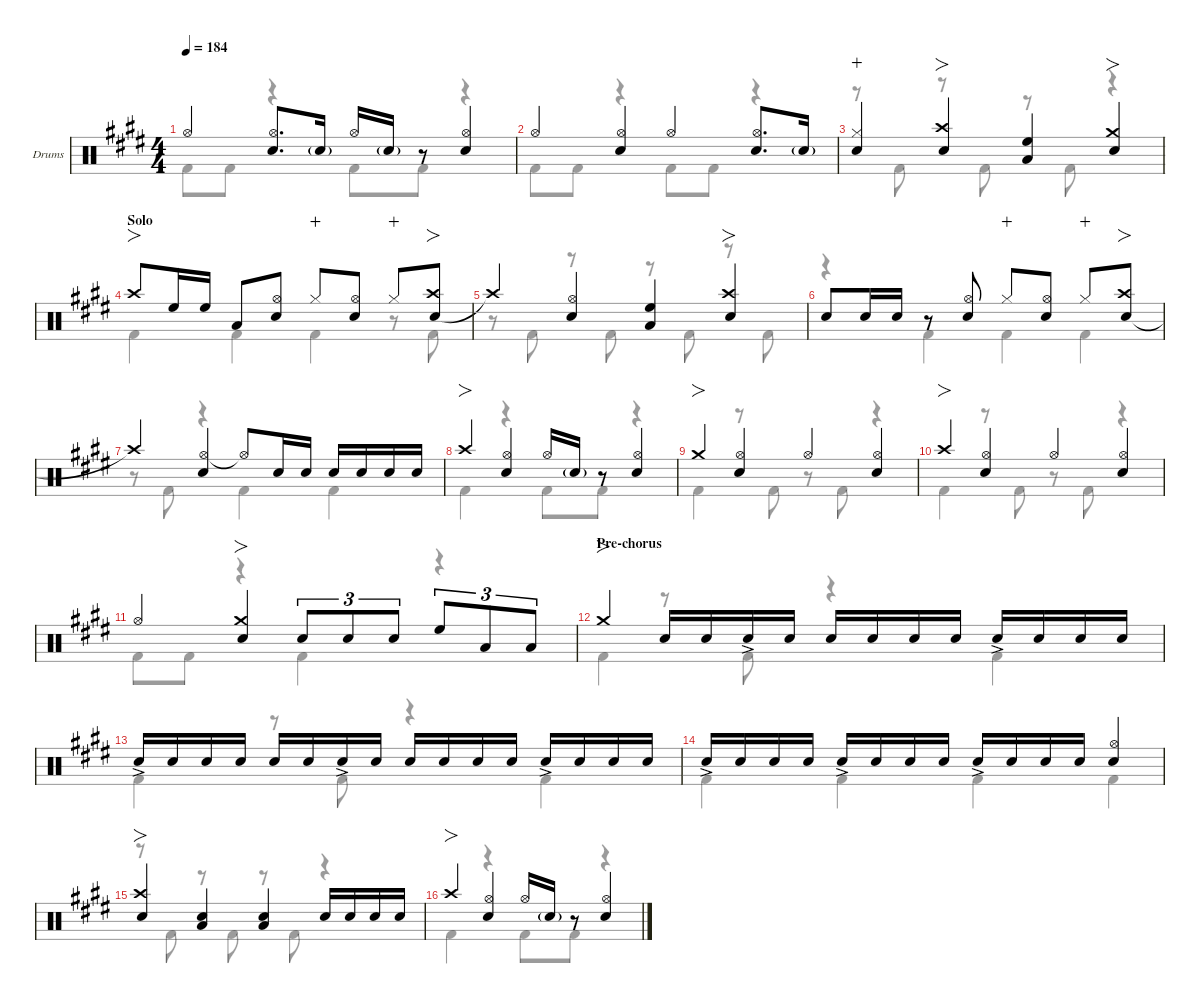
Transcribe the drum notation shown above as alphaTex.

\defaultSystemsLayout 4
\hideDynamics
\bracketExtendMode nobrackets
\firstSystemTrackNameOrientation horizontal
\track ("Drums" "Drums") {defaultSystemsLayout 4 instrument percussion}
\staff {score}
\articulation defaults
\voice
\ts (4 4)
\tempo 184
\clef neutral
\ks e "Hi-Hat (open)"{acc forcenatural}.4{dy f}
("Hi-Hat (open)"{acc forcenatural} "Snare (hit) 2"{acc forcenatural}).8{d} "Snare (hit) 2"{g acc forcenatural}.16{dy mf} "Hi-Hat (open)"{acc forcenatural}.16{dy f} "Snare (hit) 2"{g acc forcenatural}.16{dy mf beam split} r.8 ("Hi-Hat (open)"{acc forcenatural} "Snare (hit) 2"{acc forcenatural}).4{dy f} |
"Hi-Hat (open)"{acc forcenatural}.4 ("Hi-Hat (open)"{acc forcenatural} "Snare (hit) 2"{acc forcenatural}).4 "Hi-Hat (open)"{acc forcenatural}.4 ("Hi-Hat (open)"{acc forcenatural} "Snare (hit) 2"{acc forcenatural}).8{d} "Snare (hit) 2"{g acc forcenatural}.16{dy mf} |
("Hi-Hat (closed)"{acc forcenatural} "Snare (hit) 2"{acc forcenatural}).4{dy f wahc} ("Snare (hit) 2"{acc forcenatural} "Crash high (hit)"{acc forcenatural}).4{fo} ("High Floor Tom (hit)"{acc forcenatural} "Low Tom (hit)"{acc forcenatural}).4 ("Snare (hit) 2"{acc forcenatural} "Crash medium (hit)"{acc forcenatural}).4{fo} |
\section ("" "Solo")
"Crash high (hit)"{acc forcenatural}.8{fo} "High Floor Tom (hit)"{acc forcenatural}.16 "High Floor Tom (hit)"{acc forcenatural}.16{beam split} "Low Tom (hit)"{acc forcenatural}.8{dy mf} ("Snare (hit) 2"{acc forcenatural} "Hi-Hat (open)"{acc forcenatural}).8{dy f} "Hi-Hat (closed)"{acc forcenatural}.8{dy mp wahc} ("Hi-Hat (open)"{acc forcenatural} "Snare (hit) 2"{acc forcenatural}).8{dy f} "Hi-Hat (closed)"{acc forcenatural}.8{dy mp wahc} ("Snare (hit) 2"{acc forcenatural} "Crash high (hit)"{acc forcenatural}).8{fo dy f} |
"Crash high (hit)"{t acc forcenatural}.4 ("Hi-Hat (open)"{acc forcenatural} "Snare (hit) 2"{acc forcenatural}).4 ("High Floor Tom (hit)"{acc forcenatural} "Low Tom (hit)"{acc forcenatural}).4 ("Snare (hit) 2"{acc forcenatural} "Crash high (hit)"{acc forcenatural}).4{fo} |
"Snare (hit) 2"{acc forcenatural}.8 "Snare (hit) 2"{acc forcenatural}.16 "Snare (hit) 2"{acc forcenatural}.16{dy mf beam split} r.8{beam split} ("Snare (hit) 2"{acc forcenatural} "Hi-Hat (open)"{acc forcenatural}).8{dy f} "Hi-Hat (closed)"{acc forcenatural}.8{dy mp wahc} ("Hi-Hat (open)"{acc forcenatural} "Snare (hit) 2"{acc forcenatural}).8{dy f} "Hi-Hat (closed)"{acc forcenatural}.8{dy mp wahc} ("Snare (hit) 2"{acc forcenatural} "Crash high (hit)"{acc forcenatural}).8{fo dy f} |
"Crash high (hit)"{t acc forcenatural}.4 ("Hi-Hat (open)"{acc forcenatural} "Snare (hit) 2"{acc forcenatural}).4 "Hi-Hat (open)"{t acc forcenatural}.8 "Snare (hit) 2"{acc forcenatural}.16 "Snare (hit) 2"{acc forcenatural}.16{dy mf beam split} "Snare (hit) 2"{acc forcenatural}.16{dy f} "Snare (hit) 2"{acc forcenatural}.16{dy mf} "Snare (hit) 2"{acc forcenatural}.16{dy f} "Snare (hit) 2"{acc forcenatural}.16{dy mf} |
"Crash high (hit)"{acc forcenatural}.4{fo dy f} ("Hi-Hat (open)"{acc forcenatural} "Snare (hit) 2"{acc forcenatural}).4 "Hi-Hat (open)"{acc forcenatural}.16 "Snare (hit) 2"{g acc forcenatural}.16{dy mf beam split} r.8 ("Hi-Hat (open)"{acc forcenatural} "Snare (hit) 2"{acc forcenatural}).4{dy f} |
"Crash medium (hit)"{acc forcenatural}.4{fo} ("Hi-Hat (open)"{acc forcenatural} "Snare (hit) 2"{acc forcenatural}).4 "Hi-Hat (open)"{acc forcenatural}.4 ("Hi-Hat (open)"{acc forcenatural} "Snare (hit) 2"{acc forcenatural}).4 |
"Crash high (hit)"{acc forcenatural}.4{fo} ("Hi-Hat (open)"{acc forcenatural} "Snare (hit) 2"{acc forcenatural}).4 "Hi-Hat (open)"{acc forcenatural}.4 ("Hi-Hat (open)"{acc forcenatural} "Snare (hit) 2"{acc forcenatural}).4 |
"Hi-Hat (open)"{acc forcenatural}.4 ("Crash medium (hit)"{acc forcenatural} "Snare (hit) 2"{acc forcenatural}).4{fo} "Snare (hit) 2"{acc forcenatural}.8{tu (3 2)} "Snare (hit) 2"{acc forcenatural}.8{tu (3 2) dy mf} "Snare (hit) 2"{acc forcenatural}.8{tu (3 2)} "High Floor Tom (hit)"{acc forcenatural}.8{tu (3 2) dy f} "Low Tom (hit)"{acc forcenatural}.8{tu (3 2)} "Low Tom (hit)"{acc forcenatural}.8{tu (3 2)} |
\section ("" "Pre-chorus")
"Crash medium (hit)"{acc forcenatural}.4{fo} "Snare (hit) 2"{acc forcenatural}.16{dy p} "Snare (hit) 2"{acc forcenatural}.16 "Snare (hit) 2"{ac acc forcenatural}.16{dy f} "Snare (hit) 2"{acc forcenatural}.16{dy p} "Snare (hit) 2"{acc forcenatural}.16 "Snare (hit) 2"{acc forcenatural}.16 "Snare (hit) 2"{acc forcenatural}.16 "Snare (hit) 2"{acc forcenatural}.16{beam split} "Snare (hit) 2"{ac acc forcenatural}.16{dy f} "Snare (hit) 2"{acc forcenatural}.16{dy mp} "Snare (hit) 2"{acc forcenatural}.16 "Snare (hit) 2"{acc forcenatural}.16 |
"Snare (hit) 2"{ac acc forcenatural}.16{dy f} "Snare (hit) 2"{acc forcenatural}.16{dy p} "Snare (hit) 2"{acc forcenatural}.16 "Snare (hit) 2"{acc forcenatural}.16{beam split} "Snare (hit) 2"{acc forcenatural}.16 "Snare (hit) 2"{acc forcenatural}.16 "Snare (hit) 2"{ac acc forcenatural}.16{dy f} "Snare (hit) 2"{acc forcenatural}.16{dy p} "Snare (hit) 2"{acc forcenatural}.16 "Snare (hit) 2"{acc forcenatural}.16 "Snare (hit) 2"{acc forcenatural}.16 "Snare (hit) 2"{acc forcenatural}.16{beam split} "Snare (hit) 2"{ac acc forcenatural}.16{dy f} "Snare (hit) 2"{acc forcenatural}.16{dy mp} "Snare (hit) 2"{acc forcenatural}.16 "Snare (hit) 2"{acc forcenatural}.16 |
"Snare (hit) 2"{ac acc forcenatural}.16{dy f} "Snare (hit) 2"{acc forcenatural}.16{dy p} "Snare (hit) 2"{acc forcenatural}.16 "Snare (hit) 2"{acc forcenatural}.16{beam split} "Snare (hit) 2"{ac acc forcenatural}.16{dy mf} "Snare (hit) 2"{acc forcenatural}.16{dy p} "Snare (hit) 2"{acc forcenatural}.16 "Snare (hit) 2"{acc forcenatural}.16{beam split} "Snare (hit) 2"{ac acc forcenatural}.16{dy mf} "Snare (hit) 2"{acc forcenatural}.16{dy p} "Snare (hit) 2"{acc forcenatural}.16 "Snare (hit) 2"{acc forcenatural}.16{beam split} ("Hi-Hat (open)"{acc forcenatural} "Snare (hit) 2"{acc forcenatural}).4{dy f} |
("Snare (hit) 2"{acc forcenatural} "Crash high (hit)"{acc forcenatural}).4{fo} ("Snare (hit) 2"{acc forcenatural} "Low Tom (hit)"{acc forcenatural}).4 ("Snare (hit) 2"{acc forcenatural} "Low Tom (hit)"{acc forcenatural}).4 "Snare (hit) 2"{acc forcenatural}.16 "Snare (hit) 2"{acc forcenatural}.16{dy mf} "Snare (hit) 2"{acc forcenatural}.16{dy f} "Snare (hit) 2"{acc forcenatural}.16{dy mf} |
"Crash high (hit)"{acc forcenatural}.4{fo dy f} ("Hi-Hat (open)"{acc forcenatural} "Snare (hit) 2"{acc forcenatural}).4 "Hi-Hat (open)"{acc forcenatural}.16 "Snare (hit) 2"{g acc forcenatural}.16{dy mf beam split} r.8 ("Hi-Hat (open)"{acc forcenatural} "Snare (hit) 2"{acc forcenatural}).4{dy f}
\voice
\clef neutral
\ottava regular
\simile none
\ks e "Kick (hit) 2"{acc forcenatural}.8{dy f} "Kick (hit) 2"{acc forcenatural}.8
r.4 "Kick (hit) 2"{acc forcenatural}.8 "Kick (hit) 2"{acc forcenatural}.8 r.4 |
"Kick (hit) 2"{acc forcenatural}.8 "Kick (hit) 2"{acc forcenatural}.8 r.4 "Kick (hit) 2"{acc forcenatural}.8 "Kick (hit) 2"{acc forcenatural}.8 r.4 |
r.8 "Kick (hit) 2"{acc forcenatural}.8 r.8 "Kick (hit) 2"{acc forcenatural}.8 r.8 "Kick (hit) 2"{acc forcenatural}.8 r.4 |
"Kick (hit) 2"{acc forcenatural}.4 "Kick (hit) 2"{acc forcenatural}.4 "Kick (hit) 2"{acc forcenatural}.4 r.8 "Kick (hit) 2"{acc forcenatural}.8 |
r.8 "Kick (hit) 2"{acc forcenatural}.8 r.8 "Kick (hit) 2"{acc forcenatural}.8 r.8 "Kick (hit) 2"{acc forcenatural}.8 r.8 "Kick (hit) 2"{acc forcenatural}.8 |
r.4 "Kick (hit) 2"{acc forcenatural}.4 "Kick (hit) 2"{acc forcenatural}.4 "Kick (hit) 2"{acc forcenatural}.4 |
r.8 "Kick (hit) 2"{acc forcenatural}.8 r.4 "Kick (hit) 2"{acc forcenatural}.4 "Kick (hit) 2"{acc forcenatural}.4 |
"Kick (hit) 2"{acc forcenatural}.4 r.4 "Kick (hit) 2"{acc forcenatural}.8 "Kick (hit) 2"{acc forcenatural}.8 r.4 |
"Kick (hit) 2"{acc forcenatural}.4 r.8 "Kick (hit) 2"{acc forcenatural}.8 r.8 "Kick (hit) 2"{acc forcenatural}.8 r.4 |
"Kick (hit) 2"{acc forcenatural}.4 r.8 "Kick (hit) 2"{acc forcenatural}.8 r.8 "Kick (hit) 2"{acc forcenatural}.8 r.4 |
"Kick (hit) 2"{acc forcenatural}.8 "Kick (hit) 2"{acc forcenatural}.8 r.4 "Kick (hit) 2"{acc forcenatural}.4 r.4 |
"Kick (hit) 2"{acc forcenatural}.4 r.8 "Kick (hit) 2"{acc forcenatural}.8 r.4 "Kick (hit) 2"{acc forcenatural}.4 |
"Kick (hit) 2"{acc forcenatural}.4 r.8 "Kick (hit) 2"{acc forcenatural}.8 r.4 "Kick (hit) 2"{acc forcenatural}.4 |
"Kick (hit) 2"{acc forcenatural}.4 "Kick (hit) 2"{acc forcenatural}.4 "Kick (hit) 2"{acc forcenatural}.4 "Kick (hit) 2"{acc forcenatural}.4 |
r.8 "Kick (hit) 2"{acc forcenatural}.8 r.8 "Kick (hit) 2"{acc forcenatural}.8 r.8 "Kick (hit) 2"{acc forcenatural}.8 r.4 |
"Kick (hit) 2"{acc forcenatural}.4 r.4 "Kick (hit) 2"{acc forcenatural}.8 "Kick (hit) 2"{acc forcenatural}.8 r.4
